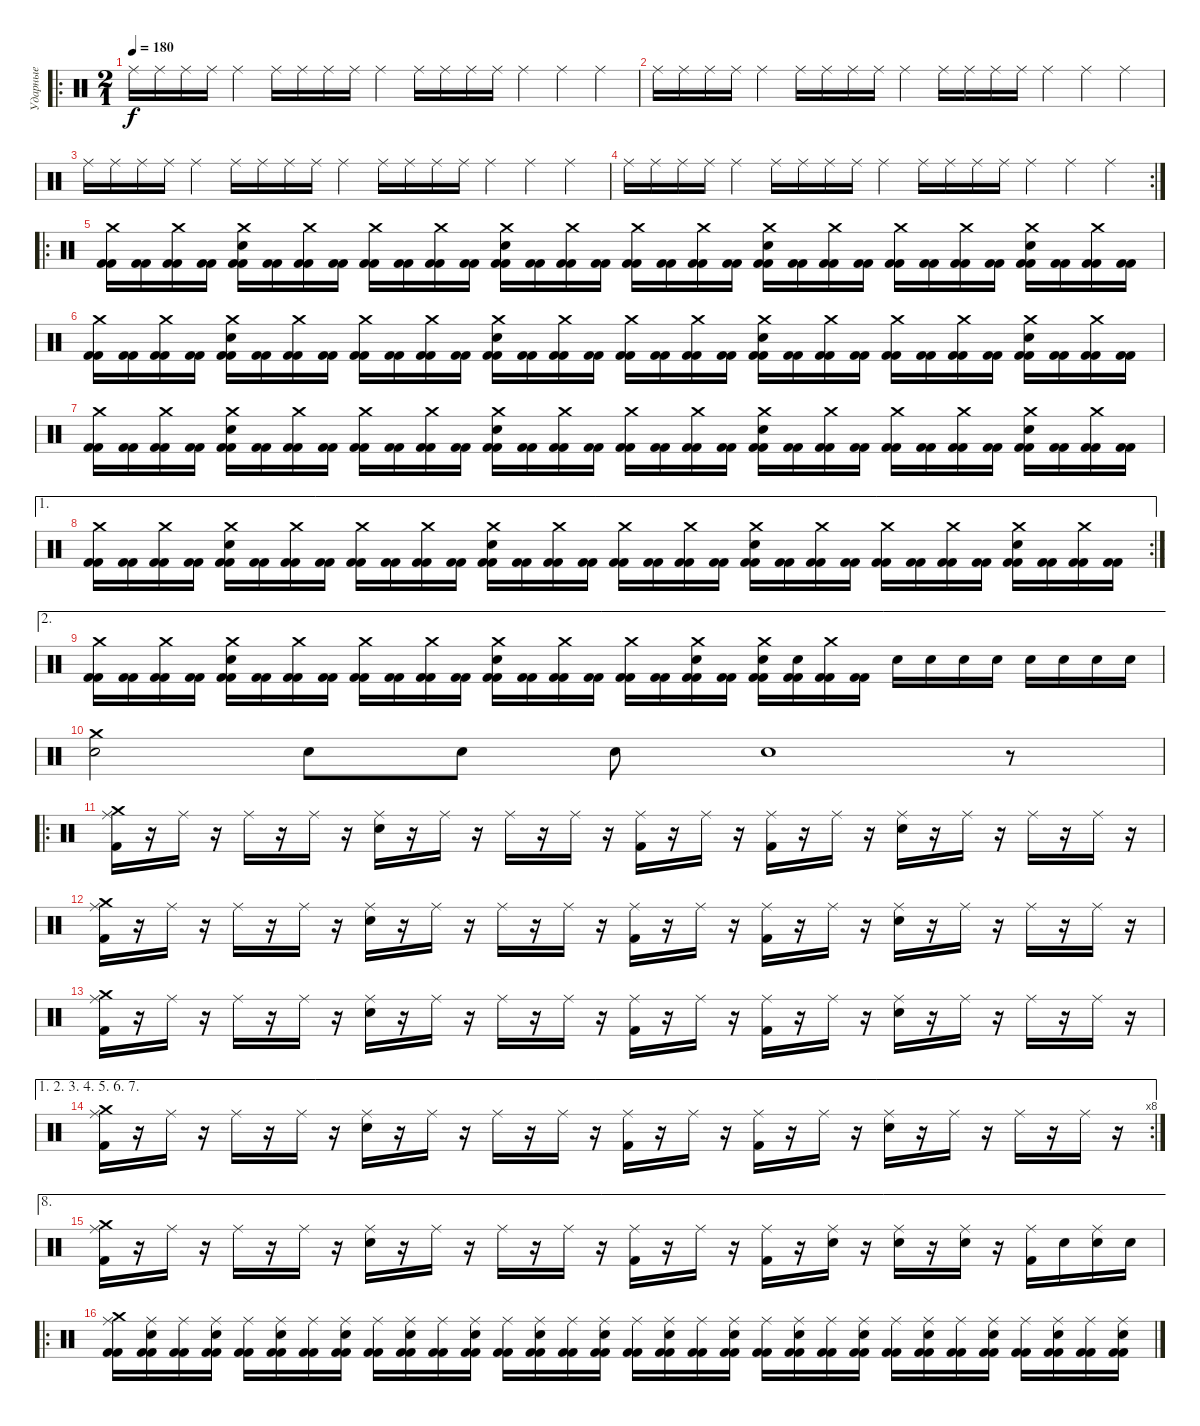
\track ("Ударные" "Ударные") {instrument percussion}
\staff {score}
\articulation defaults
\ro
\ts (2 1)
\tempo 180
\clef neutral
\ks c "Ride (middle)".16{dy f} "Ride (middle)".16 "Ride (middle)".16 "Ride (middle)".16 "Ride (middle)".4 "Ride (middle)".16 "Ride (middle)".16 "Ride (middle)".16 "Ride (middle)".16 "Ride (middle)".4 "Ride (middle)".16 "Ride (middle)".16 "Ride (middle)".16 "Ride (middle)".16 "Ride (middle)".4 "Ride (middle)".4 "Ride (middle)".4
|
"Ride (middle)".16 "Ride (middle)".16 "Ride (middle)".16 "Ride (middle)".16 "Ride (middle)".4 "Ride (middle)".16 "Ride (middle)".16 "Ride (middle)".16 "Ride (middle)".16 "Ride (middle)".4 "Ride (middle)".16 "Ride (middle)".16 "Ride (middle)".16 "Ride (middle)".16 "Ride (middle)".4 "Ride (middle)".4 "Ride (middle)".4 |
"Ride (middle)".16 "Ride (middle)".16 "Ride (middle)".16 "Ride (middle)".16 "Ride (middle)".4 "Ride (middle)".16 "Ride (middle)".16 "Ride (middle)".16 "Ride (middle)".16 "Ride (middle)".4 "Ride (middle)".16 "Ride (middle)".16 "Ride (middle)".16 "Ride (middle)".16 "Ride (middle)".4 "Ride (middle)".4 "Ride (middle)".4 |
\rc 2 "Ride (middle)".16 "Ride (middle)".16 "Ride (middle)".16 "Ride (middle)".16 "Ride (middle)".4 "Ride (middle)".16 "Ride (middle)".16 "Ride (middle)".16 "Ride (middle)".16 "Ride (middle)".4 "Ride (middle)".16 "Ride (middle)".16 "Ride (middle)".16 "Ride (middle)".16 "Ride (middle)".4 "Ride (middle)".4 "Ride (middle)".4
|
\ro
("Kick (hit) 2" "Crash medium (hit)" "Kick (hit) 2").16 ("Kick (hit) 2" "Kick (hit) 2").16 ("Kick (hit) 2" "Crash medium (hit)" "Kick (hit) 2").16 ("Kick (hit) 2" "Kick (hit) 2").16 ("Kick (hit) 2" "Crash medium (hit)" "Electric Snare (hit)" "Kick (hit) 2").16 ("Kick (hit) 2" "Kick (hit) 2").16 ("Kick (hit) 2" "Crash medium (hit)" "Kick (hit) 2").16 ("Kick (hit) 2" "Kick (hit) 2").16 ("Kick (hit) 2" "Crash medium (hit)" "Kick (hit) 2").16 ("Kick (hit) 2" "Kick (hit) 2").16 ("Kick (hit) 2" "Crash medium (hit)" "Kick (hit) 2").16 ("Kick (hit) 2" "Kick (hit) 2").16 ("Kick (hit) 2" "Crash medium (hit)" "Electric Snare (hit)" "Kick (hit) 2").16 ("Kick (hit) 2" "Kick (hit) 2").16 ("Kick (hit) 2" "Crash medium (hit)" "Kick (hit) 2").16 ("Kick (hit) 2" "Kick (hit) 2").16 ("Kick (hit) 2" "Crash medium (hit)" "Kick (hit) 2").16 ("Kick (hit) 2" "Kick (hit) 2").16 ("Kick (hit) 2" "Crash medium (hit)" "Kick (hit) 2").16 ("Kick (hit) 2" "Kick (hit) 2").16 ("Kick (hit) 2" "Crash medium (hit)" "Electric Snare (hit)" "Kick (hit) 2").16 ("Kick (hit) 2" "Kick (hit) 2").16 ("Kick (hit) 2" "Crash medium (hit)" "Kick (hit) 2").16 ("Kick (hit) 2" "Kick (hit) 2").16 ("Kick (hit) 2" "Crash medium (hit)" "Kick (hit) 2").16 ("Kick (hit) 2" "Kick (hit) 2").16 ("Kick (hit) 2" "Crash medium (hit)" "Kick (hit) 2").16 ("Kick (hit) 2" "Kick (hit) 2").16 ("Kick (hit) 2" "Crash medium (hit)" "Electric Snare (hit)" "Kick (hit) 2").16 ("Kick (hit) 2" "Kick (hit) 2").16 ("Kick (hit) 2" "Crash medium (hit)" "Kick (hit) 2").16 ("Kick (hit) 2" "Kick (hit) 2").16 |
("Kick (hit) 2" "Crash medium (hit)" "Kick (hit) 2").16 ("Kick (hit) 2" "Kick (hit) 2").16 ("Kick (hit) 2" "Crash medium (hit)" "Kick (hit) 2").16 ("Kick (hit) 2" "Kick (hit) 2").16 ("Kick (hit) 2" "Crash medium (hit)" "Electric Snare (hit)" "Kick (hit) 2").16 ("Kick (hit) 2" "Kick (hit) 2").16 ("Kick (hit) 2" "Crash medium (hit)" "Kick (hit) 2").16 ("Kick (hit) 2" "Kick (hit) 2").16 ("Kick (hit) 2" "Crash medium (hit)" "Kick (hit) 2").16 ("Kick (hit) 2" "Kick (hit) 2").16 ("Kick (hit) 2" "Crash medium (hit)" "Kick (hit) 2").16 ("Kick (hit) 2" "Kick (hit) 2").16 ("Kick (hit) 2" "Crash medium (hit)" "Electric Snare (hit)" "Kick (hit) 2").16 ("Kick (hit) 2" "Kick (hit) 2").16 ("Kick (hit) 2" "Crash medium (hit)" "Kick (hit) 2").16 ("Kick (hit) 2" "Kick (hit) 2").16 ("Kick (hit) 2" "Crash medium (hit)" "Kick (hit) 2").16 ("Kick (hit) 2" "Kick (hit) 2").16 ("Kick (hit) 2" "Crash medium (hit)" "Kick (hit) 2").16 ("Kick (hit) 2" "Kick (hit) 2").16 ("Kick (hit) 2" "Crash medium (hit)" "Electric Snare (hit)" "Kick (hit) 2").16 ("Kick (hit) 2" "Kick (hit) 2").16 ("Kick (hit) 2" "Crash medium (hit)" "Kick (hit) 2").16 ("Kick (hit) 2" "Kick (hit) 2").16 ("Kick (hit) 2" "Crash medium (hit)" "Kick (hit) 2").16 ("Kick (hit) 2" "Kick (hit) 2").16 ("Kick (hit) 2" "Crash medium (hit)" "Kick (hit) 2").16 ("Kick (hit) 2" "Kick (hit) 2").16 ("Kick (hit) 2" "Crash medium (hit)" "Electric Snare (hit)" "Kick (hit) 2").16 ("Kick (hit) 2" "Kick (hit) 2").16 ("Kick (hit) 2" "Crash medium (hit)" "Kick (hit) 2").16 ("Kick (hit) 2" "Kick (hit) 2").16 |
("Kick (hit) 2" "Crash medium (hit)" "Kick (hit) 2").16 ("Kick (hit) 2" "Kick (hit) 2").16 ("Kick (hit) 2" "Crash medium (hit)" "Kick (hit) 2").16 ("Kick (hit) 2" "Kick (hit) 2").16 ("Kick (hit) 2" "Crash medium (hit)" "Electric Snare (hit)" "Kick (hit) 2").16 ("Kick (hit) 2" "Kick (hit) 2").16 ("Kick (hit) 2" "Crash medium (hit)" "Kick (hit) 2").16 ("Kick (hit) 2" "Kick (hit) 2").16 ("Kick (hit) 2" "Crash medium (hit)" "Kick (hit) 2").16 ("Kick (hit) 2" "Kick (hit) 2").16 ("Kick (hit) 2" "Crash medium (hit)" "Kick (hit) 2").16 ("Kick (hit) 2" "Kick (hit) 2").16 ("Kick (hit) 2" "Crash medium (hit)" "Electric Snare (hit)" "Kick (hit) 2").16 ("Kick (hit) 2" "Kick (hit) 2").16 ("Kick (hit) 2" "Crash medium (hit)" "Kick (hit) 2").16 ("Kick (hit) 2" "Kick (hit) 2").16 ("Kick (hit) 2" "Crash medium (hit)" "Kick (hit) 2").16 ("Kick (hit) 2" "Kick (hit) 2").16 ("Kick (hit) 2" "Crash medium (hit)" "Kick (hit) 2").16 ("Kick (hit) 2" "Kick (hit) 2").16 ("Kick (hit) 2" "Crash medium (hit)" "Electric Snare (hit)" "Kick (hit) 2").16 ("Kick (hit) 2" "Kick (hit) 2").16 ("Kick (hit) 2" "Crash medium (hit)" "Kick (hit) 2").16 ("Kick (hit) 2" "Kick (hit) 2").16 ("Kick (hit) 2" "Crash medium (hit)" "Kick (hit) 2").16 ("Kick (hit) 2" "Kick (hit) 2").16 ("Kick (hit) 2" "Crash medium (hit)" "Kick (hit) 2").16 ("Kick (hit) 2" "Kick (hit) 2").16 ("Kick (hit) 2" "Crash medium (hit)" "Electric Snare (hit)" "Kick (hit) 2").16 ("Kick (hit) 2" "Kick (hit) 2").16 ("Kick (hit) 2" "Crash medium (hit)" "Kick (hit) 2").16 ("Kick (hit) 2" "Kick (hit) 2").16 |
\ae 1
\rc 2
("Kick (hit) 2" "Crash medium (hit)" "Kick (hit) 2").16 ("Kick (hit) 2" "Kick (hit) 2").16 ("Kick (hit) 2" "Crash medium (hit)" "Kick (hit) 2").16 ("Kick (hit) 2" "Kick (hit) 2").16 ("Kick (hit) 2" "Crash medium (hit)" "Electric Snare (hit)" "Kick (hit) 2").16 ("Kick (hit) 2" "Kick (hit) 2").16 ("Kick (hit) 2" "Crash medium (hit)" "Kick (hit) 2").16 ("Kick (hit) 2" "Kick (hit) 2").16 ("Kick (hit) 2" "Crash medium (hit)" "Kick (hit) 2").16 ("Kick (hit) 2" "Kick (hit) 2").16 ("Kick (hit) 2" "Crash medium (hit)" "Kick (hit) 2").16 ("Kick (hit) 2" "Kick (hit) 2").16 ("Kick (hit) 2" "Crash medium (hit)" "Electric Snare (hit)" "Kick (hit) 2").16 ("Kick (hit) 2" "Kick (hit) 2").16 ("Kick (hit) 2" "Crash medium (hit)" "Kick (hit) 2").16 ("Kick (hit) 2" "Kick (hit) 2").16 ("Kick (hit) 2" "Crash medium (hit)" "Kick (hit) 2").16 ("Kick (hit) 2" "Kick (hit) 2").16 ("Kick (hit) 2" "Crash medium (hit)" "Kick (hit) 2").16 ("Kick (hit) 2" "Kick (hit) 2").16 ("Kick (hit) 2" "Crash medium (hit)" "Electric Snare (hit)" "Kick (hit) 2").16 ("Kick (hit) 2" "Kick (hit) 2").16 ("Kick (hit) 2" "Crash medium (hit)" "Kick (hit) 2").16 ("Kick (hit) 2" "Kick (hit) 2").16 ("Kick (hit) 2" "Crash medium (hit)" "Kick (hit) 2").16 ("Kick (hit) 2" "Kick (hit) 2").16 ("Kick (hit) 2" "Crash medium (hit)" "Kick (hit) 2").16 ("Kick (hit) 2" "Kick (hit) 2").16 ("Kick (hit) 2" "Crash medium (hit)" "Electric Snare (hit)" "Kick (hit) 2").16 ("Kick (hit) 2" "Kick (hit) 2").16 ("Kick (hit) 2" "Crash medium (hit)" "Kick (hit) 2").16 ("Kick (hit) 2" "Kick (hit) 2").16 |
\ae 2
("Kick (hit) 2" "Crash medium (hit)" "Kick (hit) 2").16 ("Kick (hit) 2" "Kick (hit) 2").16 ("Kick (hit) 2" "Crash medium (hit)" "Kick (hit) 2").16 ("Kick (hit) 2" "Kick (hit) 2").16 ("Kick (hit) 2" "Crash medium (hit)" "Electric Snare (hit)" "Kick (hit) 2").16 ("Kick (hit) 2" "Kick (hit) 2").16 ("Kick (hit) 2" "Crash medium (hit)" "Kick (hit) 2").16 ("Kick (hit) 2" "Kick (hit) 2").16 ("Kick (hit) 2" "Crash medium (hit)" "Kick (hit) 2").16 ("Kick (hit) 2" "Kick (hit) 2").16 ("Kick (hit) 2" "Crash medium (hit)" "Kick (hit) 2").16 ("Kick (hit) 2" "Kick (hit) 2").16 ("Kick (hit) 2" "Crash medium (hit)" "Electric Snare (hit)" "Kick (hit) 2").16 ("Kick (hit) 2" "Kick (hit) 2").16 ("Kick (hit) 2" "Crash medium (hit)" "Kick (hit) 2").16 ("Kick (hit) 2" "Kick (hit) 2").16 ("Kick (hit) 2" "Crash medium (hit)" "Kick (hit) 2").16 ("Kick (hit) 2" "Kick (hit) 2").16 ("Kick (hit) 2" "Crash medium (hit)" "Electric Snare (hit)" "Kick (hit) 2").16 ("Kick (hit) 2" "Kick (hit) 2").16 ("Kick (hit) 2" "Crash medium (hit)" "Electric Snare (hit)" "Kick (hit) 2").16 ("Kick (hit) 2" "Electric Snare (hit)" "Kick (hit) 2").16 ("Kick (hit) 2" "Crash medium (hit)" "Kick (hit) 2").16 ("Kick (hit) 2" "Kick (hit) 2").16 "Electric Snare (hit)".16 "Electric Snare (hit)".16 "Electric Snare (hit)".16 "Electric Snare (hit)".16 "Electric Snare (hit)".16 "Electric Snare (hit)".16 "Electric Snare (hit)".16 "Electric Snare (hit)".16 |
("Crash medium (hit)" "Electric Snare (hit)").2 "Electric Snare (hit)".8 "Electric Snare (hit)".8 "Electric Snare (hit)".8 "Electric Snare (hit)".1 r.8 |
\ro
("Ride (middle)" "Crash medium (hit)" "Kick (hit) 2").16 r.16 "Ride (middle)".16 r.16 "Ride (middle)".16 r.16 "Ride (middle)".16 r.16 ("Ride (middle)" "Electric Snare (hit)").16 r.16 "Ride (middle)".16 r.16 "Ride (middle)".16 r.16 "Ride (middle)".16 r.16 ("Ride (middle)" "Kick (hit) 2").16 r.16 "Ride (middle)".16 r.16 ("Ride (middle)" "Kick (hit) 2").16 r.16 "Ride (middle)".16 r.16 ("Ride (middle)" "Electric Snare (hit)").16 r.16 "Ride (middle)".16 r.16 "Ride (middle)".16 r.16 "Ride (middle)".16 r.16 |
("Ride (middle)" "Crash medium (hit)" "Kick (hit) 2").16 r.16 "Ride (middle)".16 r.16 "Ride (middle)".16 r.16 "Ride (middle)".16 r.16 ("Ride (middle)" "Electric Snare (hit)").16 r.16 "Ride (middle)".16 r.16 "Ride (middle)".16 r.16 "Ride (middle)".16 r.16 ("Ride (middle)" "Kick (hit) 2").16 r.16 "Ride (middle)".16 r.16 ("Ride (middle)" "Kick (hit) 2").16 r.16 "Ride (middle)".16 r.16 ("Ride (middle)" "Electric Snare (hit)").16 r.16 "Ride (middle)".16 r.16 "Ride (middle)".16 r.16 "Ride (middle)".16 r.16 |
("Ride (middle)" "Crash medium (hit)" "Kick (hit) 2").16 r.16 "Ride (middle)".16 r.16 "Ride (middle)".16 r.16 "Ride (middle)".16 r.16 ("Ride (middle)" "Electric Snare (hit)").16 r.16 "Ride (middle)".16 r.16 "Ride (middle)".16 r.16 "Ride (middle)".16 r.16 ("Ride (middle)" "Kick (hit) 2").16 r.16 "Ride (middle)".16 r.16 ("Ride (middle)" "Kick (hit) 2").16 r.16 "Ride (middle)".16 r.16 ("Ride (middle)" "Electric Snare (hit)").16 r.16 "Ride (middle)".16 r.16 "Ride (middle)".16 r.16 "Ride (middle)".16 r.16 |
\ae (1 2 3 4 5 6 7)
\rc 8
("Ride (middle)" "Crash medium (hit)" "Kick (hit) 2").16 r.16 "Ride (middle)".16 r.16 "Ride (middle)".16 r.16 "Ride (middle)".16 r.16 ("Ride (middle)" "Electric Snare (hit)").16 r.16 "Ride (middle)".16 r.16 "Ride (middle)".16 r.16 "Ride (middle)".16 r.16 ("Ride (middle)" "Kick (hit) 2").16 r.16 "Ride (middle)".16 r.16 ("Ride (middle)" "Kick (hit) 2").16 r.16 "Ride (middle)".16 r.16 ("Ride (middle)" "Electric Snare (hit)").16 r.16 "Ride (middle)".16 r.16 "Ride (middle)".16 r.16 "Ride (middle)".16 r.16 |
\ae 8
("Ride (middle)" "Crash medium (hit)" "Kick (hit) 2").16 r.16 "Ride (middle)".16 r.16 "Ride (middle)".16 r.16 "Ride (middle)".16 r.16 ("Ride (middle)" "Electric Snare (hit)").16 r.16 "Ride (middle)".16 r.16 "Ride (middle)".16 r.16 "Ride (middle)".16 r.16 ("Ride (middle)" "Kick (hit) 2").16 r.16 "Ride (middle)".16 r.16 ("Ride (middle)" "Kick (hit) 2").16 r.16 ("Ride (middle)" "Electric Snare (hit)").16 r.16 ("Ride (middle)" "Electric Snare (hit)").16 r.16 ("Ride (middle)" "Electric Snare (hit)").16 r.16 ("Ride (middle)" "Kick (hit) 2").16 "Electric Snare (hit)".16 ("Ride (middle)" "Electric Snare (hit)").16 "Electric Snare (hit)".16 |
\ro
("Kick (hit) 2" "Ride (middle)" "Crash medium (hit)" "Kick (hit) 2").16 ("Kick (hit) 2" "Ride (middle)" "Electric Snare (hit)" "Kick (hit) 2").16 ("Kick (hit) 2" "Ride (middle)" "Kick (hit) 2").16 ("Kick (hit) 2" "Ride (middle)" "Electric Snare (hit)" "Kick (hit) 2").16 ("Kick (hit) 2" "Ride (middle)" "Kick (hit) 2").16 ("Kick (hit) 2" "Ride (middle)" "Electric Snare (hit)" "Kick (hit) 2").16 ("Kick (hit) 2" "Ride (middle)" "Kick (hit) 2").16 ("Kick (hit) 2" "Ride (middle)" "Electric Snare (hit)" "Kick (hit) 2").16 ("Kick (hit) 2" "Ride (middle)" "Kick (hit) 2").16 ("Kick (hit) 2" "Ride (middle)" "Electric Snare (hit)" "Kick (hit) 2").16 ("Kick (hit) 2" "Ride (middle)" "Kick (hit) 2").16 ("Kick (hit) 2" "Ride (middle)" "Electric Snare (hit)" "Kick (hit) 2").16 ("Kick (hit) 2" "Ride (middle)" "Kick (hit) 2").16 ("Kick (hit) 2" "Ride (middle)" "Electric Snare (hit)" "Kick (hit) 2").16 ("Kick (hit) 2" "Ride (middle)" "Kick (hit) 2").16 ("Kick (hit) 2" "Ride (middle)" "Electric Snare (hit)" "Kick (hit) 2").16 ("Kick (hit) 2" "Ride (middle)" "Kick (hit) 2").16 ("Kick (hit) 2" "Ride (middle)" "Electric Snare (hit)" "Kick (hit) 2").16 ("Kick (hit) 2" "Ride (middle)" "Kick (hit) 2").16 ("Kick (hit) 2" "Ride (middle)" "Electric Snare (hit)" "Kick (hit) 2").16 ("Kick (hit) 2" "Ride (middle)" "Kick (hit) 2").16 ("Kick (hit) 2" "Ride (middle)" "Electric Snare (hit)" "Kick (hit) 2").16 ("Kick (hit) 2" "Ride (middle)" "Kick (hit) 2").16 ("Kick (hit) 2" "Ride (middle)" "Electric Snare (hit)" "Kick (hit) 2").16 ("Kick (hit) 2" "Ride (middle)" "Kick (hit) 2").16 ("Kick (hit) 2" "Ride (middle)" "Electric Snare (hit)" "Kick (hit) 2").16 ("Kick (hit) 2" "Ride (middle)" "Kick (hit) 2").16 ("Kick (hit) 2" "Ride (middle)" "Electric Snare (hit)" "Kick (hit) 2").16 ("Kick (hit) 2" "Ride (middle)" "Kick (hit) 2").16 ("Kick (hit) 2" "Ride (middle)" "Electric Snare (hit)" "Kick (hit) 2").16 ("Kick (hit) 2" "Ride (middle)" "Kick (hit) 2").16 ("Kick (hit) 2" "Ride (middle)" "Electric Snare (hit)" "Kick (hit) 2").16
